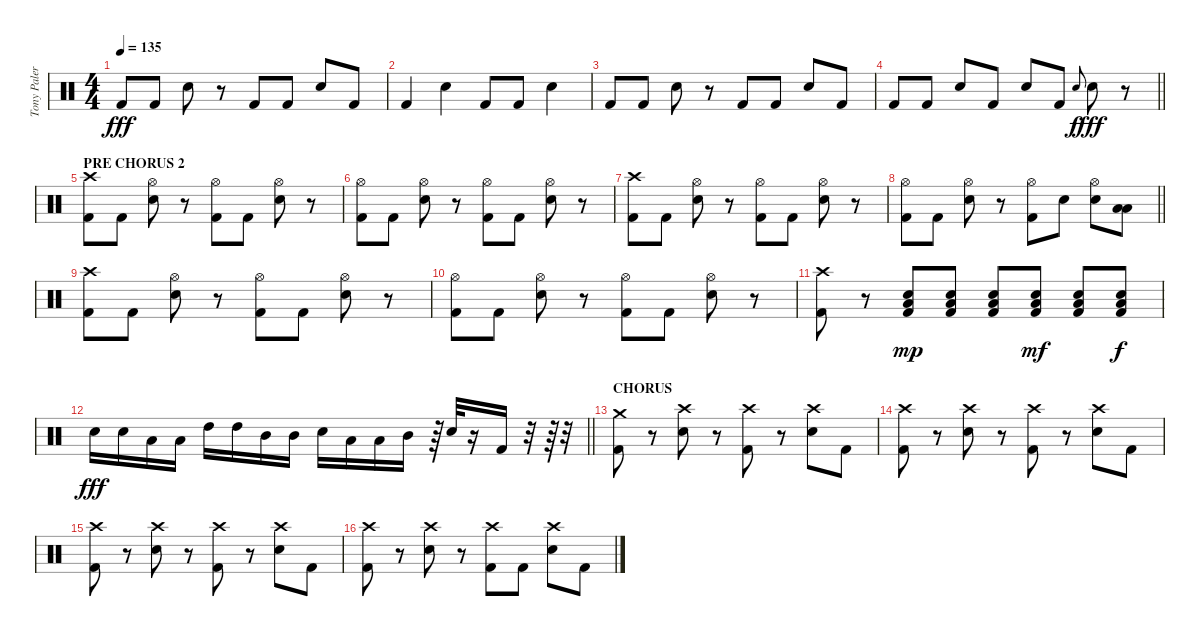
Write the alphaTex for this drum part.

\track ("Tony Palermo" "Tony Paler") {instrument percussion}
\staff {score}
\articulation defaults
\ts (4 4)
\tempo 135
\clef neutral
\ks c "Kick (hit) 2".8{dy fff} "Kick (hit) 2".8 "Snare (hit) 2".8
r.8 "Kick (hit) 2".8 "Kick (hit) 2".8 "Snare (hit) 2".8 "Kick (hit) 2".8 |
"Kick (hit) 2".4 "Snare (hit) 2".4 "Kick (hit) 2".8 "Kick (hit) 2".8 "Snare (hit) 2".4 |
"Kick (hit) 2".8 "Kick (hit) 2".8 "Snare (hit) 2".8 r.8 "Kick (hit) 2".8 "Kick (hit) 2".8 "Snare (hit) 2".8 "Kick (hit) 2".8 |
\barLineRight lightlight "Kick (hit) 2".8 "Kick (hit) 2".8 "Snare (hit) 2".8 "Kick (hit) 2".8 "Snare (hit) 2".8 "Kick (hit) 2".8 "Snare (hit) 2".8{gr onbeat dy f} "Snare (hit) 2".8{dy fff}
r.8 |
\section ("" "PRE CHORUS 2")
("Crash high (hit)" "Kick (hit) 2").8 "Kick (hit) 2".8 ("Hi-Hat (open)" "Snare (hit) 2").8 r.8 ("Hi-Hat (open)" "Kick (hit) 2").8 "Kick (hit) 2".8 ("Hi-Hat (open)" "Snare (hit) 2").8 r.8 |
("Hi-Hat (open)" "Kick (hit) 2").8 "Kick (hit) 2".8 ("Hi-Hat (open)" "Snare (hit) 2").8 r.8 ("Hi-Hat (open)" "Kick (hit) 2").8 "Kick (hit) 2".8 ("Hi-Hat (open)" "Snare (hit) 2").8 r.8 |
("Crash high (hit)" "Kick (hit) 2").8 "Kick (hit) 2".8 ("Hi-Hat (open)" "Snare (hit) 2").8 r.8 ("Hi-Hat (open)" "Kick (hit) 2").8 "Kick (hit) 2".8 ("Hi-Hat (open)" "Snare (hit) 2").8 r.8 |
\barLineRight lightlight
("Hi-Hat (open)" "Kick (hit) 2").8 "Kick (hit) 2".8 ("Hi-Hat (open)" "Snare (hit) 2").8 r.8 ("Hi-Hat (open)" "Kick (hit) 2").8 "Snare (hit) 2".8 ("Hi-Hat (open)" "Snare (hit) 2").8 ("Low Tom (hit)" "Low Floor Tom (hit)").8 |
("Crash high (hit)" "Kick (hit) 2").8 "Kick (hit) 2".8 ("Hi-Hat (open)" "Snare (hit) 2").8 r.8 ("Hi-Hat (open)" "Kick (hit) 2").8 "Kick (hit) 2".8 ("Hi-Hat (open)" "Snare (hit) 2").8 r.8 |
("Hi-Hat (open)" "Kick (hit) 2").8 "Kick (hit) 2".8 ("Hi-Hat (open)" "Snare (hit) 2").8 r.8 ("Hi-Hat (open)" "Kick (hit) 2").8 "Kick (hit) 2".8 ("Hi-Hat (open)" "Snare (hit) 2").8 r.8 |
("Crash high (hit)" "Kick (hit) 2").8 r.8 ("Low Floor Tom (hit)" "Snare (hit) 2" "Kick (hit) 2").8{dy mp} ("Low Floor Tom (hit)" "Snare (hit) 2" "Kick (hit) 2").8 ("Low Floor Tom (hit)" "Snare (hit) 2" "Kick (hit) 2").8 ("Low Floor Tom (hit)" "Snare (hit) 2" "Kick (hit) 2").8{dy mf} ("Low Floor Tom (hit)" "Snare (hit) 2" "Kick (hit) 2").8 ("Low Floor Tom (hit)" "Snare (hit) 2" "Kick (hit) 2").8{dy f} |
\barLineRight lightlight "Snare (hit) 2".16{dy fff} "Snare (hit) 2".16 "Low Tom (hit)".16 "Low Tom (hit)".16 "High Tom (hit)".16 "High Tom (hit)".16 "Mid Tom (hit)".16 "Mid Tom (hit)".16 "Snare (hit) 2".16 "Low Tom (hit)".16 "Low Tom (hit)".16 "Mid Tom (hit)".16
r.64 "Snare (hit) 2".32 r.16 "Kick (hit) 2".16 r.32 r.64 r.32 |
\section ("" "CHORUS")
("Crash medium (hit)" "Kick (hit) 2").8 r.8 ("Crash high (hit)" "Snare (hit) 2").8 r.8 ("Crash high (hit)" "Kick (hit) 2").8 r.8 ("Crash high (hit)" "Snare (hit) 2").8 "Kick (hit) 2".8 |
("Crash high (hit)" "Kick (hit) 2").8 r.8 ("Crash high (hit)" "Snare (hit) 2").8 r.8 ("Crash high (hit)" "Kick (hit) 2").8 r.8 ("Crash high (hit)" "Snare (hit) 2").8 "Kick (hit) 2".8 |
("Crash high (hit)" "Kick (hit) 2").8 r.8 ("Crash high (hit)" "Snare (hit) 2").8 r.8 ("Crash high (hit)" "Kick (hit) 2").8 r.8 ("Crash high (hit)" "Snare (hit) 2").8 "Kick (hit) 2".8 |
("Crash high (hit)" "Kick (hit) 2").8 r.8 ("Crash high (hit)" "Snare (hit) 2").8 r.8 ("Crash high (hit)" "Kick (hit) 2").8 "Kick (hit) 2".8 ("Crash high (hit)" "Snare (hit) 2").8 "Kick (hit) 2".8
